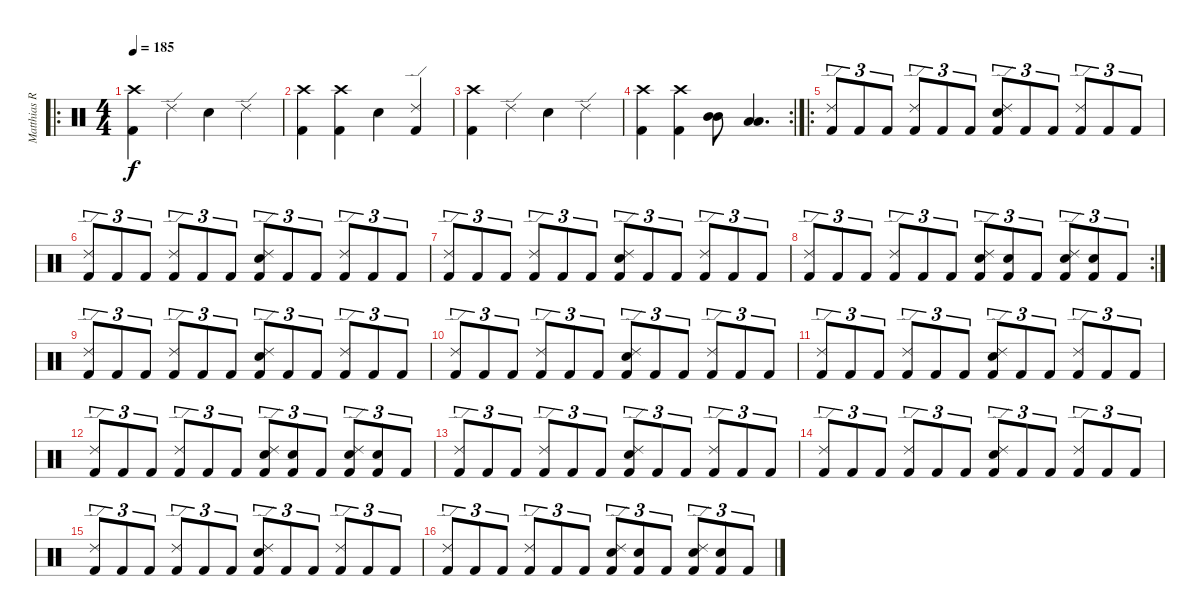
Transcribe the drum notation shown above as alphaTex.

\track ("Matthias Rodig" "Matthias R") {instrument percussion}
\staff {score}
\articulation defaults
\ro
\ts (4 4)
\tempo 185
\clef neutral
\ks c
("Kick (hit) 2" "Crash high (hit)").4{dy f} "Ride (edge) 2".4 "Electric Snare (hit)".4 "Ride (edge) 2".4 |
("Kick (hit) 2" "Crash high (hit)").4 ("Kick (hit) 2" "Crash high (hit)").4 "Electric Snare (hit)".4 ("Kick (hit) 2" "Ride (edge) 2").4 |
("Kick (hit) 2" "Crash high (hit)").4 "Ride (edge) 2".4 "Electric Snare (hit)".4 "Ride (edge) 2".4 |
\rc 2
("Kick (hit) 2" "Crash high (hit)").4 ("Kick (hit) 2" "Crash high (hit)").4 ("Mid Tom (hit)" "Mid Tom (hit)").8{bd 120} ("Low Tom (hit)" "Low Tom (hit)").4{d bd 120} |
\ro
("Kick (hit) 2" "Ride (edge) 2").8{tu (3 2)} "Kick (hit) 2".8{tu (3 2)} "Kick (hit) 2".8{tu (3 2)} ("Kick (hit) 2" "Ride (edge) 2").8{tu (3 2)} "Kick (hit) 2".8{tu (3 2)} "Kick (hit) 2".8{tu (3 2)} ("Kick (hit) 2" "Snare (hit) 2" "Ride (edge) 2").8{tu (3 2)} "Kick (hit) 2".8{tu (3 2)} "Kick (hit) 2".8{tu (3 2)} ("Kick (hit) 2" "Ride (edge) 2").8{tu (3 2)} "Kick (hit) 2".8{tu (3 2)} "Kick (hit) 2".8{tu (3 2)} |
("Kick (hit) 2" "Ride (edge) 2").8{tu (3 2)} "Kick (hit) 2".8{tu (3 2)} "Kick (hit) 2".8{tu (3 2)} ("Kick (hit) 2" "Ride (edge) 2").8{tu (3 2)} "Kick (hit) 2".8{tu (3 2)} "Kick (hit) 2".8{tu (3 2)} ("Kick (hit) 2" "Snare (hit) 2" "Ride (edge) 2").8{tu (3 2)} "Kick (hit) 2".8{tu (3 2)} "Kick (hit) 2".8{tu (3 2)} ("Kick (hit) 2" "Ride (edge) 2").8{tu (3 2)} "Kick (hit) 2".8{tu (3 2)} "Kick (hit) 2".8{tu (3 2)} |
("Kick (hit) 2" "Ride (edge) 2").8{tu (3 2)} "Kick (hit) 2".8{tu (3 2)} "Kick (hit) 2".8{tu (3 2)} ("Kick (hit) 2" "Ride (edge) 2").8{tu (3 2)} "Kick (hit) 2".8{tu (3 2)} "Kick (hit) 2".8{tu (3 2)} ("Kick (hit) 2" "Snare (hit) 2" "Ride (edge) 2").8{tu (3 2)} "Kick (hit) 2".8{tu (3 2)} "Kick (hit) 2".8{tu (3 2)} ("Kick (hit) 2" "Ride (edge) 2").8{tu (3 2)} "Kick (hit) 2".8{tu (3 2)} "Kick (hit) 2".8{tu (3 2)} |
\rc 2
("Kick (hit) 2" "Ride (edge) 2").8{tu (3 2)} "Kick (hit) 2".8{tu (3 2)} "Kick (hit) 2".8{tu (3 2)} ("Kick (hit) 2" "Ride (edge) 2").8{tu (3 2)} "Kick (hit) 2".8{tu (3 2)} "Kick (hit) 2".8{tu (3 2)} ("Kick (hit) 2" "Electric Snare (hit)" "Ride (edge) 2").8{tu (3 2)} ("Kick (hit) 2" "Electric Snare (hit)").8{tu (3 2)} "Kick (hit) 2".8{tu (3 2)} ("Kick (hit) 2" "Electric Snare (hit)" "Ride (edge) 2").8{tu (3 2)} ("Kick (hit) 2" "Electric Snare (hit)").8{tu (3 2)} "Kick (hit) 2".8{tu (3 2)} |
("Kick (hit) 2" "Ride (edge) 2").8{tu (3 2)} "Kick (hit) 2".8{tu (3 2)} "Kick (hit) 2".8{tu (3 2)} ("Kick (hit) 2" "Ride (edge) 2").8{tu (3 2)} "Kick (hit) 2".8{tu (3 2)} "Kick (hit) 2".8{tu (3 2)} ("Kick (hit) 2" "Snare (hit) 2" "Ride (edge) 2").8{tu (3 2)} "Kick (hit) 2".8{tu (3 2)} "Kick (hit) 2".8{tu (3 2)} ("Kick (hit) 2" "Ride (edge) 2").8{tu (3 2)} "Kick (hit) 2".8{tu (3 2)} "Kick (hit) 2".8{tu (3 2)} |
("Kick (hit) 2" "Ride (edge) 2").8{tu (3 2)} "Kick (hit) 2".8{tu (3 2)} "Kick (hit) 2".8{tu (3 2)} ("Kick (hit) 2" "Ride (edge) 2").8{tu (3 2)} "Kick (hit) 2".8{tu (3 2)} "Kick (hit) 2".8{tu (3 2)} ("Kick (hit) 2" "Snare (hit) 2" "Ride (edge) 2").8{tu (3 2)} "Kick (hit) 2".8{tu (3 2)} "Kick (hit) 2".8{tu (3 2)} ("Kick (hit) 2" "Ride (edge) 2").8{tu (3 2)} "Kick (hit) 2".8{tu (3 2)} "Kick (hit) 2".8{tu (3 2)} |
("Kick (hit) 2" "Ride (edge) 2").8{tu (3 2)} "Kick (hit) 2".8{tu (3 2)} "Kick (hit) 2".8{tu (3 2)} ("Kick (hit) 2" "Ride (edge) 2").8{tu (3 2)} "Kick (hit) 2".8{tu (3 2)} "Kick (hit) 2".8{tu (3 2)} ("Kick (hit) 2" "Snare (hit) 2" "Ride (edge) 2").8{tu (3 2)} "Kick (hit) 2".8{tu (3 2)} "Kick (hit) 2".8{tu (3 2)} ("Kick (hit) 2" "Ride (edge) 2").8{tu (3 2)} "Kick (hit) 2".8{tu (3 2)} "Kick (hit) 2".8{tu (3 2)} |
("Kick (hit) 2" "Ride (edge) 2").8{tu (3 2)} "Kick (hit) 2".8{tu (3 2)} "Kick (hit) 2".8{tu (3 2)} ("Kick (hit) 2" "Ride (edge) 2").8{tu (3 2)} "Kick (hit) 2".8{tu (3 2)} "Kick (hit) 2".8{tu (3 2)} ("Kick (hit) 2" "Electric Snare (hit)" "Ride (edge) 2").8{tu (3 2)} ("Kick (hit) 2" "Electric Snare (hit)").8{tu (3 2)} "Kick (hit) 2".8{tu (3 2)} ("Kick (hit) 2" "Electric Snare (hit)" "Ride (edge) 2").8{tu (3 2)} ("Kick (hit) 2" "Electric Snare (hit)").8{tu (3 2)} "Kick (hit) 2".8{tu (3 2)} |
("Kick (hit) 2" "Ride (edge) 2").8{tu (3 2)} "Kick (hit) 2".8{tu (3 2)} "Kick (hit) 2".8{tu (3 2)} ("Kick (hit) 2" "Ride (edge) 2").8{tu (3 2)} "Kick (hit) 2".8{tu (3 2)} "Kick (hit) 2".8{tu (3 2)} ("Kick (hit) 2" "Snare (hit) 2" "Ride (edge) 2").8{tu (3 2)} "Kick (hit) 2".8{tu (3 2)} "Kick (hit) 2".8{tu (3 2)} ("Kick (hit) 2" "Ride (edge) 2").8{tu (3 2)} "Kick (hit) 2".8{tu (3 2)} "Kick (hit) 2".8{tu (3 2)} |
("Kick (hit) 2" "Ride (edge) 2").8{tu (3 2)} "Kick (hit) 2".8{tu (3 2)} "Kick (hit) 2".8{tu (3 2)} ("Kick (hit) 2" "Ride (edge) 2").8{tu (3 2)} "Kick (hit) 2".8{tu (3 2)} "Kick (hit) 2".8{tu (3 2)} ("Kick (hit) 2" "Snare (hit) 2" "Ride (edge) 2").8{tu (3 2)} "Kick (hit) 2".8{tu (3 2)} "Kick (hit) 2".8{tu (3 2)} ("Kick (hit) 2" "Ride (edge) 2").8{tu (3 2)} "Kick (hit) 2".8{tu (3 2)} "Kick (hit) 2".8{tu (3 2)} |
("Kick (hit) 2" "Ride (edge) 2").8{tu (3 2)} "Kick (hit) 2".8{tu (3 2)} "Kick (hit) 2".8{tu (3 2)} ("Kick (hit) 2" "Ride (edge) 2").8{tu (3 2)} "Kick (hit) 2".8{tu (3 2)} "Kick (hit) 2".8{tu (3 2)} ("Kick (hit) 2" "Snare (hit) 2" "Ride (edge) 2").8{tu (3 2)} "Kick (hit) 2".8{tu (3 2)} "Kick (hit) 2".8{tu (3 2)} ("Kick (hit) 2" "Ride (edge) 2").8{tu (3 2)} "Kick (hit) 2".8{tu (3 2)} "Kick (hit) 2".8{tu (3 2)} |
("Kick (hit) 2" "Ride (edge) 2").8{tu (3 2)} "Kick (hit) 2".8{tu (3 2)} "Kick (hit) 2".8{tu (3 2)} ("Kick (hit) 2" "Ride (edge) 2").8{tu (3 2)} "Kick (hit) 2".8{tu (3 2)} "Kick (hit) 2".8{tu (3 2)} ("Kick (hit) 2" "Electric Snare (hit)" "Ride (edge) 2").8{tu (3 2)} ("Kick (hit) 2" "Electric Snare (hit)").8{tu (3 2)} "Kick (hit) 2".8{tu (3 2)} ("Kick (hit) 2" "Electric Snare (hit)" "Ride (edge) 2").8{tu (3 2)} ("Kick (hit) 2" "Electric Snare (hit)").8{tu (3 2)} "Kick (hit) 2".8{tu (3 2)}
